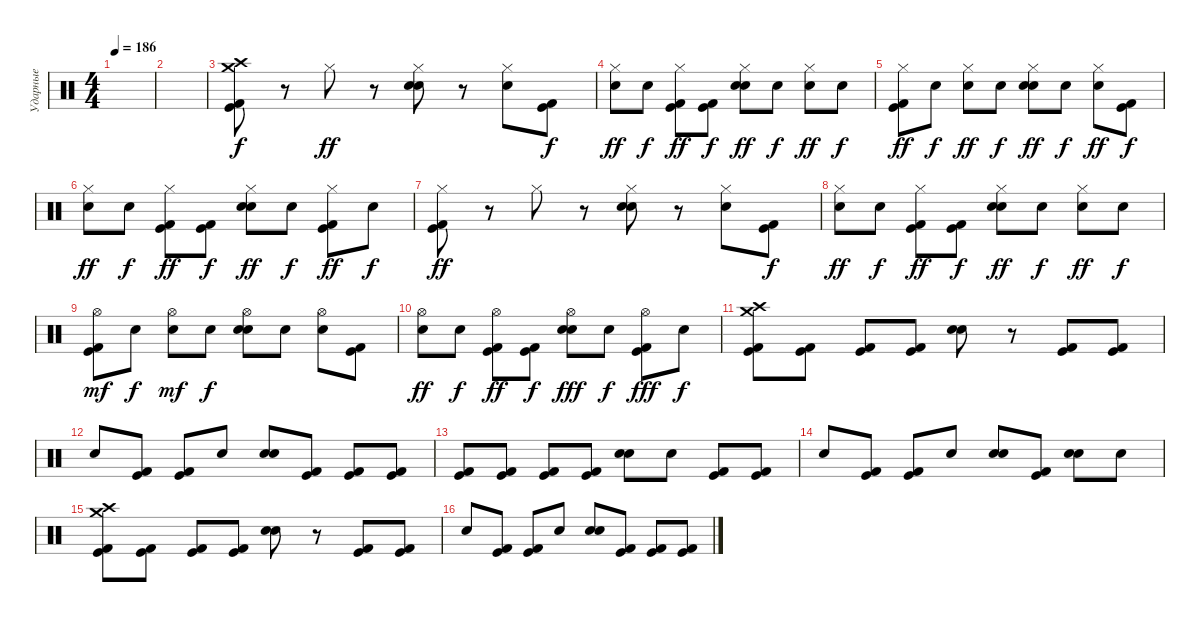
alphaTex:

\track ("Ударные" "Ударные") {instrument percussion}
\staff {score}
\articulation defaults
\ts (4 4)
\tempo 186
\clef neutral
\ks c
|
|
("Kick (hit) 2" "Kick (hit)" "Crash medium (hit)" "Crash high (hit)").8 r.8 "Hi-Hat (closed)".8{dy ff} r.8 ("Electric Snare (hit)" "Snare (hit) 2" "Hi-Hat (closed)").8 r.8 ("Snare (hit)" "Hi-Hat (closed)").8 ("Kick (hit) 2" "Kick (hit)").8{dy f} |
("Snare (hit)" "Hi-Hat (closed)").8{dy ff} "Snare (hit)".8{dy f} ("Kick (hit) 2" "Kick (hit)" "Hi-Hat (closed)").8{dy ff} ("Kick (hit) 2" "Kick (hit)").8{dy f} ("Electric Snare (hit)" "Snare (hit) 2" "Hi-Hat (closed)").8{dy ff} "Snare (hit)".8{dy f} ("Snare (hit)" "Hi-Hat (closed)").8{dy ff} "Snare (hit)".8{dy f} |
("Kick (hit) 2" "Kick (hit)" "Hi-Hat (closed)").8{dy ff} "Snare (hit)".8{dy f} ("Snare (hit)" "Hi-Hat (closed)").8{dy ff} "Snare (hit)".8{dy f} ("Electric Snare (hit)" "Snare (hit) 2" "Hi-Hat (closed)").8{dy ff} "Snare (hit)".8{dy f} ("Snare (hit)" "Hi-Hat (closed)").8{dy ff} ("Kick (hit) 2" "Kick (hit)").8{dy f} |
("Snare (hit)" "Hi-Hat (closed)").8{dy ff} "Snare (hit)".8{dy f} ("Kick (hit) 2" "Kick (hit)" "Hi-Hat (closed)").8{dy ff} ("Kick (hit) 2" "Kick (hit)").8{dy f} ("Electric Snare (hit)" "Snare (hit) 2" "Hi-Hat (closed)").8{dy ff} "Snare (hit)".8{dy f} ("Kick (hit) 2" "Kick (hit)" "Hi-Hat (closed)").8{dy ff} "Snare (hit)".8{dy f} |
("Kick (hit) 2" "Kick (hit)" "Hi-Hat (closed)").8{dy ff} r.8 "Hi-Hat (closed)".8 r.8 ("Electric Snare (hit)" "Snare (hit) 2" "Hi-Hat (closed)").8 r.8 ("Snare (hit)" "Hi-Hat (closed)").8 ("Kick (hit) 2" "Kick (hit)").8{dy f} |
("Snare (hit)" "Hi-Hat (closed)").8{dy ff} "Snare (hit)".8{dy f} ("Kick (hit) 2" "Kick (hit)" "Hi-Hat (closed)").8{dy ff} ("Kick (hit) 2" "Kick (hit)").8{dy f} ("Electric Snare (hit)" "Snare (hit) 2" "Hi-Hat (closed)").8{dy ff} "Snare (hit)".8{dy f} ("Snare (hit)" "Hi-Hat (closed)").8{dy ff} "Snare (hit)".8{dy f} |
("Kick (hit) 2" "Kick (hit)" "Hi-Hat (open)").8{dy mf} "Snare (hit)".8{dy f} ("Snare (hit)" "Hi-Hat (open)").8{dy mf} "Snare (hit)".8{dy f} ("Electric Snare (hit)" "Snare (hit) 2" "Hi-Hat (open)").8 "Snare (hit)".8 ("Snare (hit)" "Hi-Hat (open)").8 ("Kick (hit) 2" "Kick (hit)").8 |
("Snare (hit)" "Hi-Hat (open)").8{dy ff} "Snare (hit)".8{dy f} ("Kick (hit) 2" "Kick (hit)" "Hi-Hat (open)").8{dy ff} ("Kick (hit) 2" "Kick (hit)").8{dy f} ("Electric Snare (hit)" "Snare (hit) 2" "Hi-Hat (open)").8{dy fff} "Snare (hit)".8{dy f} ("Kick (hit) 2" "Kick (hit)" "Hi-Hat (open)").8{dy fff} "Snare (hit)".8{dy f} |
("Kick (hit) 2" "Kick (hit)" "Crash medium (hit)" "Crash high (hit)").8 ("Kick (hit) 2" "Kick (hit)").8 ("Kick (hit) 2" "Kick (hit)").8 ("Kick (hit) 2" "Kick (hit)").8 ("Electric Snare (hit)" "Snare (hit) 2").8 r.8 ("Kick (hit) 2" "Kick (hit)").8 ("Kick (hit) 2" "Kick (hit)").8 |
"Snare (hit)".8 ("Kick (hit) 2" "Kick (hit)").8 ("Kick (hit) 2" "Kick (hit)").8 "Snare (hit)".8 ("Electric Snare (hit)" "Snare (hit) 2").8 ("Kick (hit) 2" "Kick (hit)").8 ("Kick (hit) 2" "Kick (hit)").8 ("Kick (hit) 2" "Kick (hit)").8 |
("Kick (hit) 2" "Kick (hit)").8 ("Kick (hit) 2" "Kick (hit)").8 ("Kick (hit) 2" "Kick (hit)").8 ("Kick (hit) 2" "Kick (hit)").8 ("Electric Snare (hit)" "Snare (hit) 2").8 "Snare (hit)".8 ("Kick (hit) 2" "Kick (hit)").8 ("Kick (hit) 2" "Kick (hit)").8 |
"Snare (hit)".8 ("Kick (hit) 2" "Kick (hit)").8 ("Kick (hit) 2" "Kick (hit)").8 "Snare (hit)".8 ("Electric Snare (hit)" "Snare (hit) 2").8 ("Kick (hit) 2" "Kick (hit)").8 ("Electric Snare (hit)" "Snare (hit) 2").8 "Snare (hit)".8 |
("Kick (hit) 2" "Kick (hit)" "Crash medium (hit)" "Crash high (hit)").8 ("Kick (hit) 2" "Kick (hit)").8 ("Kick (hit) 2" "Kick (hit)").8 ("Kick (hit) 2" "Kick (hit)").8 ("Electric Snare (hit)" "Snare (hit) 2").8 r.8 ("Kick (hit) 2" "Kick (hit)").8 ("Kick (hit) 2" "Kick (hit)").8 |
"Snare (hit)".8 ("Kick (hit) 2" "Kick (hit)").8 ("Kick (hit) 2" "Kick (hit)").8 "Snare (hit)".8 ("Electric Snare (hit)" "Snare (hit) 2").8 ("Kick (hit) 2" "Kick (hit)").8 ("Kick (hit) 2" "Kick (hit)").8 ("Kick (hit) 2" "Kick (hit)").8
